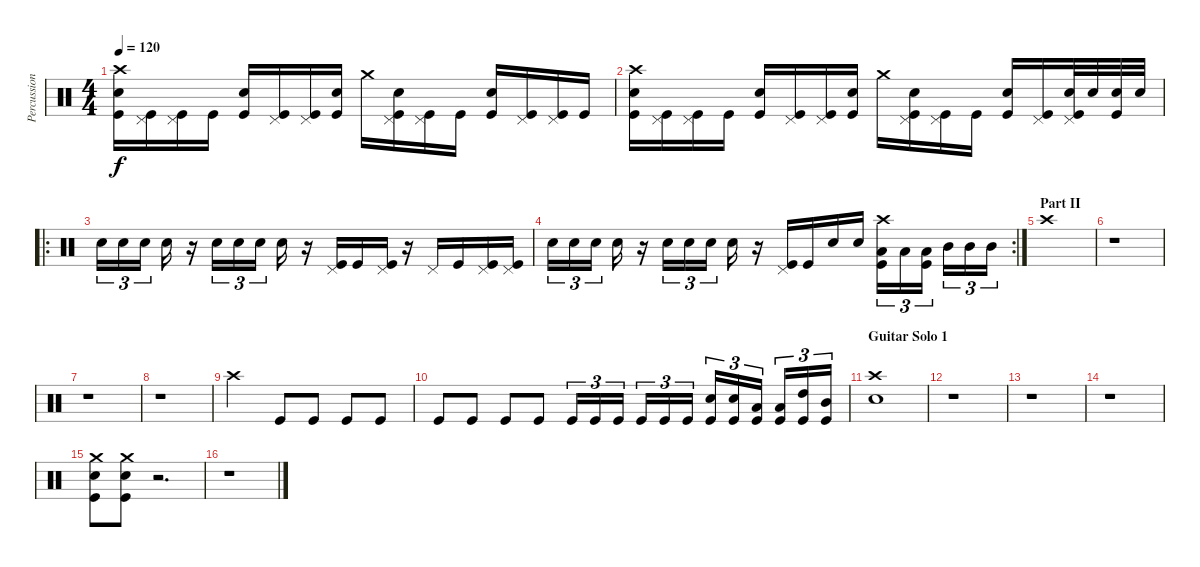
\track ("Percussions" "Percussion") {instrument percussion}
\staff {score}
\articulation defaults
\ts (4 4)
\tempo 120
\clef neutral
\ks c
("Crash high (hit)" "Electric Snare (hit)" "Kick (hit)").16{dy f} ("Pedal Hi-Hat (hit)" "Kick (hit)").16 ("Pedal Hi-Hat (hit)" "Kick (hit)").16 "Kick (hit)".16 ("Electric Snare (hit)" "Kick (hit)").16 ("Pedal Hi-Hat (hit)" "Kick (hit)").16 ("Pedal Hi-Hat (hit)" "Kick (hit)").16 ("Electric Snare (hit)" "Kick (hit)").16 "Crash medium (hit)".16 ("Pedal Hi-Hat (hit)" "Electric Snare (hit)" "Kick (hit)").16 ("Pedal Hi-Hat (hit)" "Kick (hit)").16 "Kick (hit)".16 ("Electric Snare (hit)" "Kick (hit)").16 ("Pedal Hi-Hat (hit)" "Kick (hit)").16 ("Pedal Hi-Hat (hit)" "Kick (hit)").16 "Kick (hit)".16 |
("Crash high (hit)" "Electric Snare (hit)" "Kick (hit)").16 ("Pedal Hi-Hat (hit)" "Kick (hit)").16 ("Pedal Hi-Hat (hit)" "Kick (hit)").16 "Kick (hit)".16 ("Electric Snare (hit)" "Kick (hit)").16 ("Pedal Hi-Hat (hit)" "Kick (hit)").16 ("Pedal Hi-Hat (hit)" "Kick (hit)").16 ("Electric Snare (hit)" "Kick (hit)").16 "Crash medium (hit)".16 ("Pedal Hi-Hat (hit)" "Electric Snare (hit)" "Kick (hit)").16 ("Pedal Hi-Hat (hit)" "Kick (hit)").16 "Kick (hit)".16 ("Electric Snare (hit)" "Kick (hit)").16 ("Pedal Hi-Hat (hit)" "Kick (hit)").16 ("Pedal Hi-Hat (hit)" "Electric Snare (hit)" "Kick (hit)").32 "Electric Snare (hit)".32 ("Electric Snare (hit)" "Kick (hit)").32 "Electric Snare (hit)".32 |
\ro "Electric Snare (hit)".16{tu (3 2)} "Electric Snare (hit)".16{tu (3 2)} "Electric Snare (hit)".16{tu (3 2)} "Electric Snare (hit)".16
r.16 "Electric Snare (hit)".16{tu (3 2)} "Electric Snare (hit)".16{tu (3 2)} "Electric Snare (hit)".16{tu (3 2)} "Electric Snare (hit)".16 r.16 ("Pedal Hi-Hat (hit)" "Kick (hit)").16 "Kick (hit)".16 ("Pedal Hi-Hat (hit)" "Kick (hit)").16 r.16 "Pedal Hi-Hat (hit)".16 "Kick (hit)".16 ("Pedal Hi-Hat (hit)" "Kick (hit)").16 ("Pedal Hi-Hat (hit)" "Kick (hit)").16 |
\rc 2 "Electric Snare (hit)".16{tu (3 2)} "Electric Snare (hit)".16{tu (3 2)} "Electric Snare (hit)".16{tu (3 2)} "Electric Snare (hit)".16
r.16 "Electric Snare (hit)".16{tu (3 2)} "Electric Snare (hit)".16{tu (3 2)} "Electric Snare (hit)".16{tu (3 2)} "Electric Snare (hit)".16 r.16 ("Pedal Hi-Hat (hit)" "Kick (hit)").16 "Kick (hit)".16 "Electric Snare (hit)".16 "Electric Snare (hit)".16 ("Crash high (hit)" "Low Tom (hit)" "Kick (hit)").16{tu (3 2)} "Low Tom (hit)".16{tu (3 2)} ("Low Tom (hit)" "Kick (hit)").16{tu (3 2)} "Mid Tom (hit)".16{tu (3 2)} "Mid Tom (hit)".16{tu (3 2)} "Mid Tom (hit)".16{tu (3 2)} |
\section ("" "Part II")
"Crash high (hit)".1 |
r.1 |
r.1 |
r.1 |
"Crash high (hit)".2 "Kick (hit)".8 "Kick (hit)".8 "Kick (hit)".8 "Kick (hit)".8 |
"Kick (hit)".8 "Kick (hit)".8 "Kick (hit)".8 "Kick (hit)".8 "Kick (hit)".16{tu (3 2)} "Kick (hit)".16{tu (3 2)} "Kick (hit)".16{tu (3 2)} "Kick (hit)".16{tu (3 2)} "Kick (hit)".16{tu (3 2)} "Kick (hit)".16{tu (3 2)} ("Electric Snare (hit)" "Kick (hit)").16{tu (3 2)} ("Electric Snare (hit)" "Kick (hit)").16{tu (3 2)} ("Low Tom (hit)" "Kick (hit)").16{tu (3 2)} ("Low Tom (hit)" "Kick (hit)").16{tu (3 2)} ("High Tom (hit)" "Kick (hit)").16{tu (3 2)} ("Mid Tom (hit)" "Kick (hit)").16{tu (3 2)} |
\section ("" "Guitar Solo 1")
("Crash high (hit)" "Electric Snare (hit)").1 |
r.1 |
r.1 |
r.1 |
("Crash medium (hit)" "Electric Snare (hit)" "Kick (hit)").8 ("Crash medium (hit)" "Electric Snare (hit)" "Kick (hit)").8 r.2{d} |
r.1
